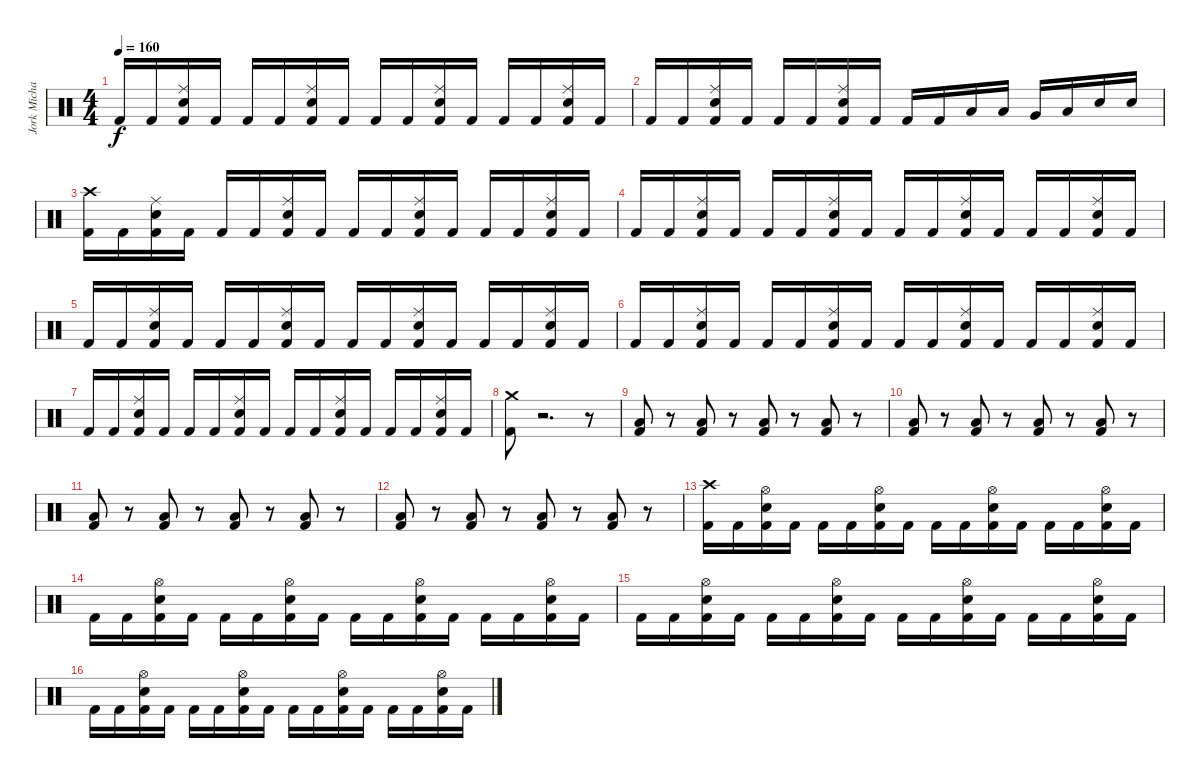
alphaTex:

\track ("Jork Michael" "Jork Micha") {instrument percussion}
\staff {score}
\articulation defaults
\ts (4 4)
\tempo 160
\clef neutral
\ks c "Kick (hit) 2".16{dy f} "Kick (hit) 2".16
("Ride (middle)" "Electric Snare (hit)" "Kick (hit) 2").16 "Kick (hit) 2".16 "Kick (hit) 2".16 "Kick (hit) 2".16 ("Ride (middle)" "Electric Snare (hit)" "Kick (hit) 2").16 "Kick (hit) 2".16 "Kick (hit) 2".16 "Kick (hit) 2".16 ("Ride (middle)" "Electric Snare (hit)" "Kick (hit) 2").16 "Kick (hit) 2".16 "Kick (hit) 2".16 "Kick (hit) 2".16 ("Ride (middle)" "Electric Snare (hit)" "Kick (hit) 2").16 "Kick (hit) 2".16 |
"Kick (hit) 2".16 "Kick (hit) 2".16 ("Ride (middle)" "Electric Snare (hit)" "Kick (hit) 2").16 "Kick (hit) 2".16 "Kick (hit) 2".16 "Kick (hit) 2".16 ("Ride (middle)" "Electric Snare (hit)" "Kick (hit) 2").16 "Kick (hit) 2".16 "Kick (hit) 2".16 "Kick (hit) 2".16 "Low Floor Tom (hit)".16 "Low Tom (hit)".16 "Very Low Tom (hit)".16 "Low Floor Tom (hit)".16 "Electric Snare (hit)".16 "Electric Snare (hit)".16 |
("Crash high (hit)" "Kick (hit) 2").16 "Kick (hit) 2".16 ("Ride (middle)" "Electric Snare (hit)" "Kick (hit) 2").16 "Kick (hit) 2".16 "Kick (hit) 2".16 "Kick (hit) 2".16 ("Ride (middle)" "Electric Snare (hit)" "Kick (hit) 2").16 "Kick (hit) 2".16 "Kick (hit) 2".16 "Kick (hit) 2".16 ("Ride (middle)" "Electric Snare (hit)" "Kick (hit) 2").16 "Kick (hit) 2".16 "Kick (hit) 2".16 "Kick (hit) 2".16 ("Ride (middle)" "Electric Snare (hit)" "Kick (hit) 2").16 "Kick (hit) 2".16 |
"Kick (hit) 2".16 "Kick (hit) 2".16 ("Ride (middle)" "Electric Snare (hit)" "Kick (hit) 2").16 "Kick (hit) 2".16 "Kick (hit) 2".16 "Kick (hit) 2".16 ("Ride (middle)" "Electric Snare (hit)" "Kick (hit) 2").16 "Kick (hit) 2".16 "Kick (hit) 2".16 "Kick (hit) 2".16 ("Ride (middle)" "Electric Snare (hit)" "Kick (hit) 2").16 "Kick (hit) 2".16 "Kick (hit) 2".16 "Kick (hit) 2".16 ("Ride (middle)" "Electric Snare (hit)" "Kick (hit) 2").16 "Kick (hit) 2".16 |
"Kick (hit) 2".16 "Kick (hit) 2".16 ("Ride (middle)" "Electric Snare (hit)" "Kick (hit) 2").16 "Kick (hit) 2".16 "Kick (hit) 2".16 "Kick (hit) 2".16 ("Ride (middle)" "Electric Snare (hit)" "Kick (hit) 2").16 "Kick (hit) 2".16 "Kick (hit) 2".16 "Kick (hit) 2".16 ("Ride (middle)" "Electric Snare (hit)" "Kick (hit) 2").16 "Kick (hit) 2".16 "Kick (hit) 2".16 "Kick (hit) 2".16 ("Ride (middle)" "Electric Snare (hit)" "Kick (hit) 2").16 "Kick (hit) 2".16 |
"Kick (hit) 2".16 "Kick (hit) 2".16 ("Ride (middle)" "Electric Snare (hit)" "Kick (hit) 2").16 "Kick (hit) 2".16 "Kick (hit) 2".16 "Kick (hit) 2".16 ("Ride (middle)" "Electric Snare (hit)" "Kick (hit) 2").16 "Kick (hit) 2".16 "Kick (hit) 2".16 "Kick (hit) 2".16 ("Ride (middle)" "Electric Snare (hit)" "Kick (hit) 2").16 "Kick (hit) 2".16 "Kick (hit) 2".16 "Kick (hit) 2".16 ("Ride (middle)" "Electric Snare (hit)" "Kick (hit) 2").16 "Kick (hit) 2".16 |
"Kick (hit) 2".16 "Kick (hit) 2".16 ("Ride (middle)" "Electric Snare (hit)" "Kick (hit) 2").16 "Kick (hit) 2".16 "Kick (hit) 2".16 "Kick (hit) 2".16 ("Ride (middle)" "Electric Snare (hit)" "Kick (hit) 2").16 "Kick (hit) 2".16 "Kick (hit) 2".16 "Kick (hit) 2".16 ("Ride (middle)" "Electric Snare (hit)" "Kick (hit) 2").16 "Kick (hit) 2".16 "Kick (hit) 2".16 "Kick (hit) 2".16 ("Ride (middle)" "Electric Snare (hit)" "Kick (hit) 2").16 "Kick (hit) 2".16 |
("Crash medium (hit)" "Kick (hit) 2").8 r.2{d} r.8 |
("Low Floor Tom (hit)" "Kick (hit) 2").8 r.8 ("Low Floor Tom (hit)" "Kick (hit) 2").8 r.8 ("Low Floor Tom (hit)" "Kick (hit) 2").8 r.8 ("Low Floor Tom (hit)" "Kick (hit) 2").8 r.8 |
("Low Floor Tom (hit)" "Kick (hit) 2").8 r.8 ("Low Floor Tom (hit)" "Kick (hit) 2").8 r.8 ("Low Floor Tom (hit)" "Kick (hit) 2").8 r.8 ("Low Floor Tom (hit)" "Kick (hit) 2").8 r.8 |
("Low Floor Tom (hit)" "Kick (hit) 2").8 r.8 ("Low Floor Tom (hit)" "Kick (hit) 2").8 r.8 ("Low Floor Tom (hit)" "Kick (hit) 2").8 r.8 ("Low Floor Tom (hit)" "Kick (hit) 2").8 r.8 |
("Low Floor Tom (hit)" "Kick (hit) 2").8 r.8 ("Low Floor Tom (hit)" "Kick (hit) 2").8 r.8 ("Low Floor Tom (hit)" "Kick (hit) 2").8 r.8 ("Low Floor Tom (hit)" "Kick (hit) 2").8 r.8 |
("Crash high (hit)" "Kick (hit) 2").16 "Kick (hit) 2".16 ("Hi-Hat (open)" "Electric Snare (hit)" "Kick (hit) 2").16 "Kick (hit) 2".16 "Kick (hit) 2".16 "Kick (hit) 2".16 ("Hi-Hat (open)" "Electric Snare (hit)" "Kick (hit) 2").16 "Kick (hit) 2".16 "Kick (hit) 2".16 "Kick (hit) 2".16 ("Hi-Hat (open)" "Electric Snare (hit)" "Kick (hit) 2").16 "Kick (hit) 2".16 "Kick (hit) 2".16 "Kick (hit) 2".16 ("Hi-Hat (open)" "Electric Snare (hit)" "Kick (hit) 2").16 "Kick (hit) 2".16 |
"Kick (hit) 2".16 "Kick (hit) 2".16 ("Hi-Hat (open)" "Electric Snare (hit)" "Kick (hit) 2").16 "Kick (hit) 2".16 "Kick (hit) 2".16 "Kick (hit) 2".16 ("Hi-Hat (open)" "Electric Snare (hit)" "Kick (hit) 2").16 "Kick (hit) 2".16 "Kick (hit) 2".16 "Kick (hit) 2".16 ("Hi-Hat (open)" "Electric Snare (hit)" "Kick (hit) 2").16 "Kick (hit) 2".16 "Kick (hit) 2".16 "Kick (hit) 2".16 ("Hi-Hat (open)" "Electric Snare (hit)" "Kick (hit) 2").16 "Kick (hit) 2".16 |
"Kick (hit) 2".16 "Kick (hit) 2".16 ("Hi-Hat (open)" "Electric Snare (hit)" "Kick (hit) 2").16 "Kick (hit) 2".16 "Kick (hit) 2".16 "Kick (hit) 2".16 ("Hi-Hat (open)" "Electric Snare (hit)" "Kick (hit) 2").16 "Kick (hit) 2".16 "Kick (hit) 2".16 "Kick (hit) 2".16 ("Hi-Hat (open)" "Electric Snare (hit)" "Kick (hit) 2").16 "Kick (hit) 2".16 "Kick (hit) 2".16 "Kick (hit) 2".16 ("Hi-Hat (open)" "Electric Snare (hit)" "Kick (hit) 2").16 "Kick (hit) 2".16 |
"Kick (hit) 2".16 "Kick (hit) 2".16 ("Hi-Hat (open)" "Electric Snare (hit)" "Kick (hit) 2").16 "Kick (hit) 2".16 "Kick (hit) 2".16 "Kick (hit) 2".16 ("Hi-Hat (open)" "Electric Snare (hit)" "Kick (hit) 2").16 "Kick (hit) 2".16 "Kick (hit) 2".16 "Kick (hit) 2".16 ("Hi-Hat (open)" "Electric Snare (hit)" "Kick (hit) 2").16 "Kick (hit) 2".16 "Kick (hit) 2".16 "Kick (hit) 2".16 ("Hi-Hat (open)" "Electric Snare (hit)" "Kick (hit) 2").16 "Kick (hit) 2".16
